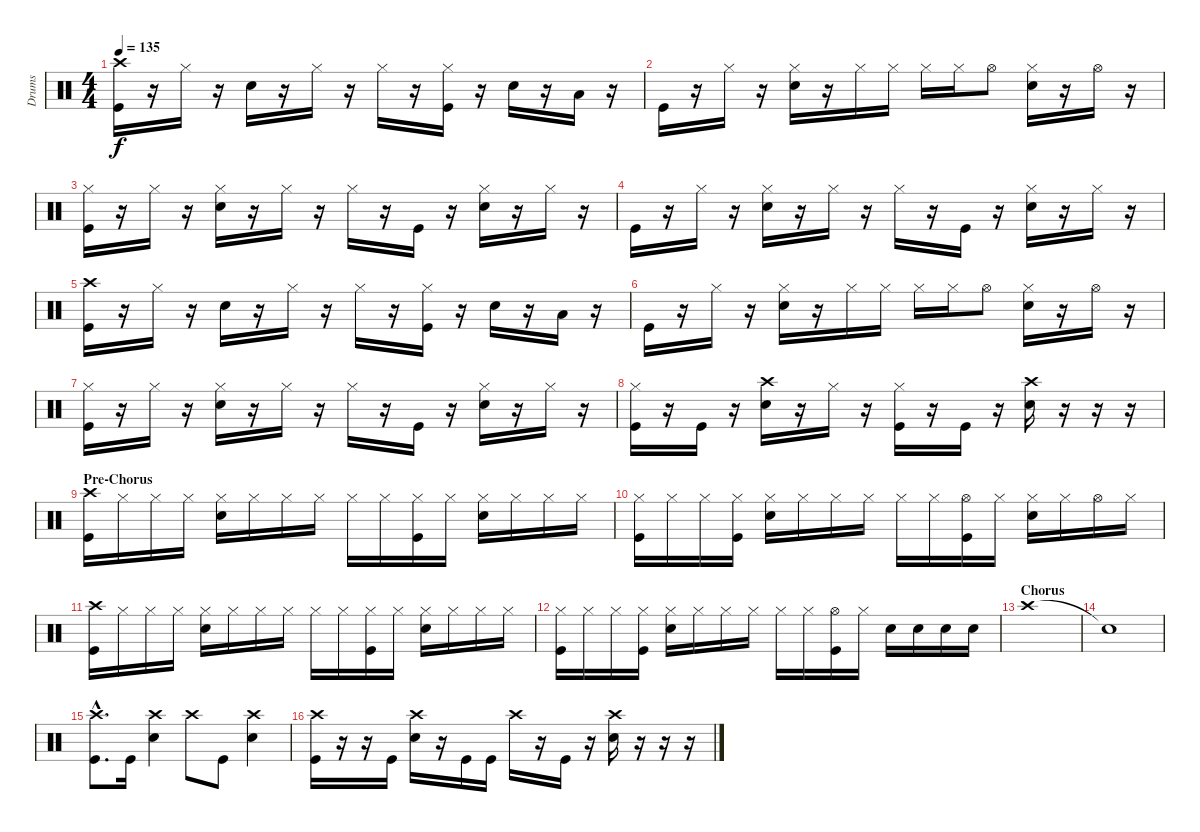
\track ("Drums" "Drums") {instrument percussion}
\staff {score}
\articulation defaults
\ts (4 4)
\tempo 135
\clef neutral
\ks c
("Crash high (hit)" "Kick (hit)").16{dy f} r.16 "Hi-Hat (closed)".16 r.16 "Electric Snare (hit)".16 r.16 "Hi-Hat (closed)".16 r.16 "Hi-Hat (closed)".16 r.16 ("Hi-Hat (closed)" "Kick (hit)").16 r.16 "Electric Snare (hit)".16 r.16 "Low Tom (hit)".16 r.16 |
"Kick (hit)".16 r.16 "Hi-Hat (closed)".16 r.16 ("Hi-Hat (closed)" "Electric Snare (hit)").16 r.16 "Hi-Hat (closed)".16 "Hi-Hat (closed)".16 "Hi-Hat (closed)".16 "Hi-Hat (closed)".16 "Hi-Hat (open)".8 ("Hi-Hat (closed)" "Electric Snare (hit)").16 r.16 "Hi-Hat (open)".16 r.16 |
("Hi-Hat (closed)" "Kick (hit)").16 r.16 "Hi-Hat (closed)".16 r.16 ("Hi-Hat (closed)" "Electric Snare (hit)").16 r.16 "Hi-Hat (closed)".16 r.16 "Hi-Hat (closed)".16 r.16 "Kick (hit)".16 r.16 ("Hi-Hat (closed)" "Electric Snare (hit)").16 r.16 "Hi-Hat (closed)".16 r.16 |
"Kick (hit)".16 r.16 "Hi-Hat (closed)".16 r.16 ("Hi-Hat (closed)" "Electric Snare (hit)").16 r.16 "Hi-Hat (closed)".16 r.16 "Hi-Hat (closed)".16 r.16 "Kick (hit)".16 r.16 ("Hi-Hat (closed)" "Electric Snare (hit)").16 r.16 "Hi-Hat (closed)".16 r.16 |
("Crash high (hit)" "Kick (hit)").16 r.16 "Hi-Hat (closed)".16 r.16 "Electric Snare (hit)".16 r.16 "Hi-Hat (closed)".16 r.16 "Hi-Hat (closed)".16 r.16 ("Hi-Hat (closed)" "Kick (hit)").16 r.16 "Electric Snare (hit)".16 r.16 "Low Tom (hit)".16 r.16 |
"Kick (hit)".16 r.16 "Hi-Hat (closed)".16 r.16 ("Hi-Hat (closed)" "Electric Snare (hit)").16 r.16 "Hi-Hat (closed)".16 "Hi-Hat (closed)".16 "Hi-Hat (closed)".16 "Hi-Hat (closed)".16 "Hi-Hat (open)".8 ("Hi-Hat (closed)" "Electric Snare (hit)").16 r.16 "Hi-Hat (open)".16 r.16 |
("Hi-Hat (closed)" "Kick (hit)").16 r.16 "Hi-Hat (closed)".16 r.16 ("Hi-Hat (closed)" "Electric Snare (hit)").16 r.16 "Hi-Hat (closed)".16 r.16 "Hi-Hat (closed)".16 r.16 "Kick (hit)".16 r.16 ("Hi-Hat (closed)" "Electric Snare (hit)").16 r.16 "Hi-Hat (closed)".16 r.16 |
("Hi-Hat (closed)" "Kick (hit)").16 r.16 "Kick (hit)".16 r.16 ("Crash high (hit)" "Electric Snare (hit)").16 r.16 "Hi-Hat (closed)".16 r.16 ("Hi-Hat (closed)" "Kick (hit)").16 r.16 "Kick (hit)".16 r.16 ("Crash high (hit)" "Electric Snare (hit)").16 r.16 r.16 r.16 |
\section ("" "Pre-Chorus")
("Crash high (hit)" "Kick (hit)").16 "Hi-Hat (closed)".16 "Hi-Hat (closed)".16 "Hi-Hat (closed)".16 ("Hi-Hat (closed)" "Electric Snare (hit)").16 "Hi-Hat (closed)".16 "Hi-Hat (closed)".16 "Hi-Hat (closed)".16 "Hi-Hat (closed)".16 "Hi-Hat (closed)".16 ("Hi-Hat (closed)" "Kick (hit)").16 "Hi-Hat (closed)".16 ("Hi-Hat (closed)" "Electric Snare (hit)").16 "Hi-Hat (closed)".16 "Hi-Hat (closed)".16 "Hi-Hat (closed)".16 |
("Hi-Hat (closed)" "Kick (hit)").16 "Hi-Hat (closed)".16 "Hi-Hat (closed)".16 ("Hi-Hat (closed)" "Kick (hit)").16 ("Hi-Hat (closed)" "Electric Snare (hit)").16 "Hi-Hat (closed)".16 "Hi-Hat (closed)".16 "Hi-Hat (closed)".16 "Hi-Hat (closed)".16 "Hi-Hat (closed)".16 ("Hi-Hat (open)" "Kick (hit)").16 "Hi-Hat (closed)".16 ("Hi-Hat (closed)" "Electric Snare (hit)").16 "Hi-Hat (closed)".16 "Hi-Hat (open)".16 "Hi-Hat (closed)".16 |
("Crash high (hit)" "Kick (hit)").16 "Hi-Hat (closed)".16 "Hi-Hat (closed)".16 "Hi-Hat (closed)".16 ("Hi-Hat (closed)" "Electric Snare (hit)").16 "Hi-Hat (closed)".16 "Hi-Hat (closed)".16 "Hi-Hat (closed)".16 "Hi-Hat (closed)".16 "Hi-Hat (closed)".16 ("Hi-Hat (closed)" "Kick (hit)").16 "Hi-Hat (closed)".16 ("Hi-Hat (closed)" "Electric Snare (hit)").16 "Hi-Hat (closed)".16 "Hi-Hat (closed)".16 "Hi-Hat (closed)".16 |
("Hi-Hat (closed)" "Kick (hit)").16 "Hi-Hat (closed)".16 "Hi-Hat (closed)".16 ("Hi-Hat (closed)" "Kick (hit)").16 ("Hi-Hat (closed)" "Electric Snare (hit)").16 "Hi-Hat (closed)".16 "Hi-Hat (closed)".16 "Hi-Hat (closed)".16 "Hi-Hat (closed)".16 "Hi-Hat (closed)".16 ("Hi-Hat (open)" "Kick (hit)").16 "Hi-Hat (closed)".16 "Electric Snare (hit)".16 "Electric Snare (hit)".16 "Electric Snare (hit)".16 "Electric Snare (hit)".16 |
\section ("" "Chorus")
"Crash high (hit)".1 |
"Snare (hit)"{t}.1 |
("Crash high (hit)"{hac} "Kick (hit)"{hac}).8{d} "Kick (hit)".16 ("Crash high (hit)" "Electric Snare (hit)").4 "Crash high (hit)".8 "Kick (hit)".8 ("Crash high (hit)" "Electric Snare (hit)").4 |
("Crash high (hit)" "Kick (hit)").16 r.16 r.16 "Kick (hit)".16 ("Crash high (hit)" "Electric Snare (hit)").16 r.16 "Kick (hit)".16 "Kick (hit)".16 "Crash high (hit)".16 r.16 "Kick (hit)".16 r.16 ("Crash high (hit)" "Electric Snare (hit)").16 r.16 r.16 r.16
